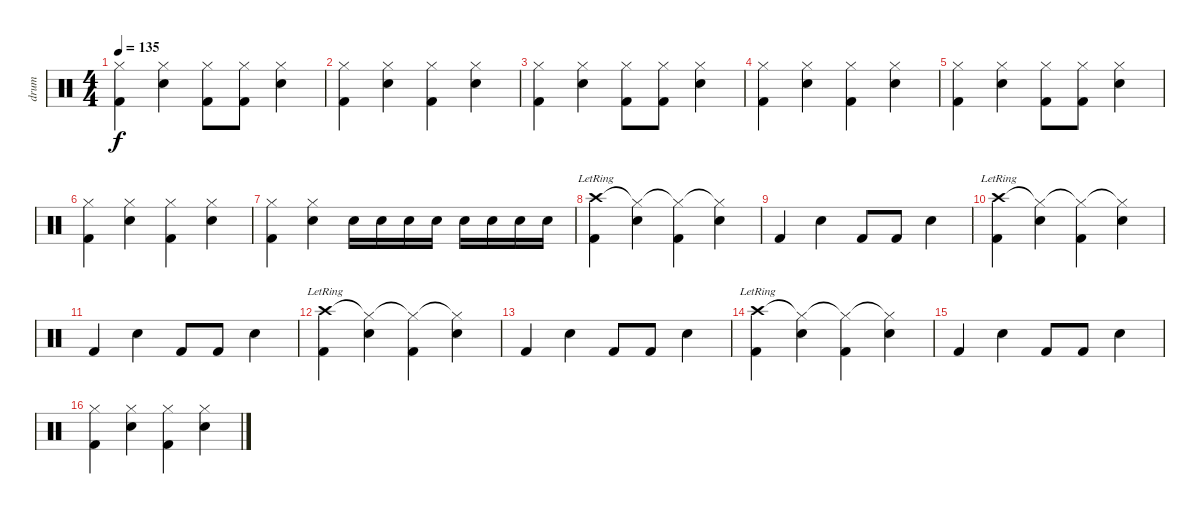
\track ("drum" "drum") {instrument percussion}
\staff {score}
\articulation defaults
\ts (4 4)
\tempo 135
\clef neutral
\ks c
("Hi-Hat (closed)" "Kick (hit) 2").4{dy f} ("Hi-Hat (closed)" "Snare (hit) 2").4 ("Hi-Hat (closed)" "Kick (hit) 2").8 ("Hi-Hat (closed)" "Kick (hit) 2").8 ("Hi-Hat (closed)" "Snare (hit) 2").4 |
("Hi-Hat (closed)" "Kick (hit) 2").4 ("Hi-Hat (closed)" "Snare (hit) 2").4 ("Hi-Hat (closed)" "Kick (hit) 2").4 ("Hi-Hat (closed)" "Snare (hit) 2").4 |
("Hi-Hat (closed)" "Kick (hit) 2").4 ("Hi-Hat (closed)" "Snare (hit) 2").4 ("Hi-Hat (closed)" "Kick (hit) 2").8 ("Hi-Hat (closed)" "Kick (hit) 2").8 ("Hi-Hat (closed)" "Snare (hit) 2").4 |
("Hi-Hat (closed)" "Kick (hit) 2").4 ("Hi-Hat (closed)" "Snare (hit) 2").4 ("Hi-Hat (closed)" "Kick (hit) 2").4 ("Hi-Hat (closed)" "Snare (hit) 2").4 |
("Hi-Hat (closed)" "Kick (hit) 2").4 ("Hi-Hat (closed)" "Snare (hit) 2").4 ("Hi-Hat (closed)" "Kick (hit) 2").8 ("Hi-Hat (closed)" "Kick (hit) 2").8 ("Hi-Hat (closed)" "Snare (hit) 2").4 |
("Hi-Hat (closed)" "Kick (hit) 2").4 ("Hi-Hat (closed)" "Snare (hit) 2").4 ("Hi-Hat (closed)" "Kick (hit) 2").4 ("Hi-Hat (closed)" "Snare (hit) 2").4 |
("Hi-Hat (closed)" "Kick (hit) 2").4 ("Hi-Hat (closed)" "Snare (hit) 2").4 "Snare (hit) 2".16 "Snare (hit) 2".16 "Snare (hit) 2".16 "Snare (hit) 2".16 "Snare (hit) 2".16 "Snare (hit) 2".16 "Snare (hit) 2".16 "Snare (hit) 2".16 |
("Crash high (hit)"{lr} "Kick (hit) 2").4 ("Hi-Hat (closed)"{t} "Snare (hit) 2").4 ("Hi-Hat (closed)"{t} "Kick (hit) 2").4 ("Hi-Hat (closed)"{t} "Snare (hit) 2").4 |
"Kick (hit) 2".4 "Snare (hit) 2".4 "Kick (hit) 2".8 "Kick (hit) 2".8 "Snare (hit) 2".4 |
("Crash high (hit)"{lr} "Kick (hit) 2").4 ("Hi-Hat (closed)"{t} "Snare (hit) 2").4 ("Hi-Hat (closed)"{t} "Kick (hit) 2").4 ("Hi-Hat (closed)"{t} "Snare (hit) 2").4 |
"Kick (hit) 2".4 "Snare (hit) 2".4 "Kick (hit) 2".8 "Kick (hit) 2".8 "Snare (hit) 2".4 |
("Crash high (hit)"{lr} "Kick (hit) 2").4 ("Hi-Hat (closed)"{t} "Snare (hit) 2").4 ("Hi-Hat (closed)"{t} "Kick (hit) 2").4 ("Hi-Hat (closed)"{t} "Snare (hit) 2").4 |
"Kick (hit) 2".4 "Snare (hit) 2".4 "Kick (hit) 2".8 "Kick (hit) 2".8 "Snare (hit) 2".4 |
("Crash high (hit)"{lr} "Kick (hit) 2").4 ("Hi-Hat (closed)"{t} "Snare (hit) 2").4 ("Hi-Hat (closed)"{t} "Kick (hit) 2").4 ("Hi-Hat (closed)"{t} "Snare (hit) 2").4 |
"Kick (hit) 2".4 "Snare (hit) 2".4 "Kick (hit) 2".8 "Kick (hit) 2".8 "Snare (hit) 2".4 |
("Hi-Hat (closed)" "Kick (hit) 2").4 ("Hi-Hat (closed)" "Snare (hit) 2").4 ("Hi-Hat (closed)" "Kick (hit) 2").4 ("Hi-Hat (closed)" "Snare (hit) 2").4
